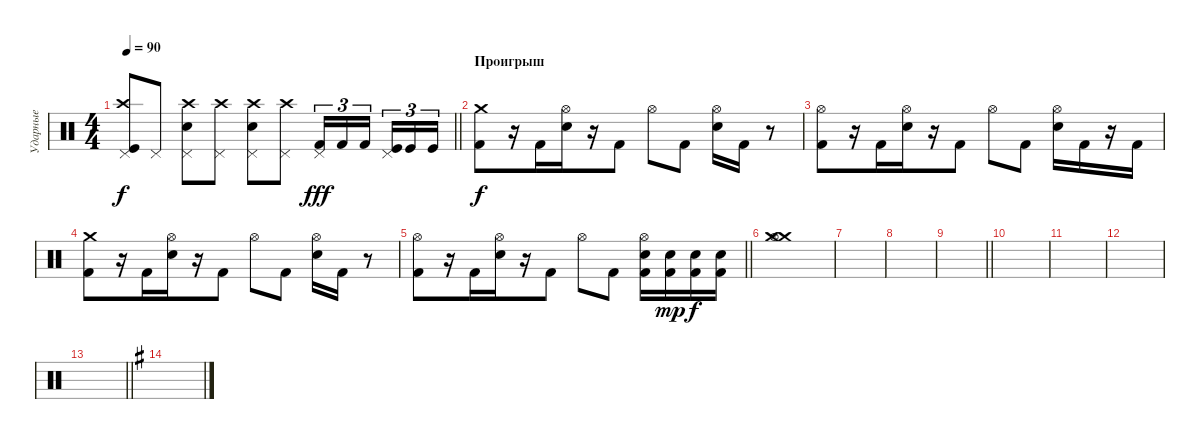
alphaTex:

\track ("Ударные" "Ударные") {instrument percussion}
\staff {score}
\articulation defaults
\ts (4 4)
\tempo 90
\clef neutral
\barLineRight lightlight
\ks c
("Kick (hit)" "Crash high (hit)" "Pedal Hi-Hat (hit)").8{dy f} "Pedal Hi-Hat (hit)".8 ("Snare (hit) 2" "Crash high (hit)" "Pedal Hi-Hat (hit)").8 ("Crash high (hit)" "Pedal Hi-Hat (hit)").8 ("Snare (hit) 2" "Crash high (hit)" "Pedal Hi-Hat (hit)").8 ("Crash high (hit)" "Pedal Hi-Hat (hit)").8 ("Kick (hit) 2" "Pedal Hi-Hat (hit)").16{tu (3 2) dy fff} "Kick (hit) 2".16{tu (3 2)} "Kick (hit) 2".16{tu (3 2) beam splitsecondary} ("Kick (hit)" "Pedal Hi-Hat (hit)").16{tu (3 2)} "Kick (hit)".16{tu (3 2)} "Kick (hit)".16{tu (3 2)} |
\section ("" "Проигрыш")
("Crash medium (hit)" "Kick (hit) 2").8{dy f} r.16 "Kick (hit) 2".16{beam merge} ("Hi-Hat (open)" "Electric Snare (hit)").16 r.16 "Kick (hit) 2".8 "Hi-Hat (open)".8 "Kick (hit) 2".8 ("Hi-Hat (open)" "Electric Snare (hit)").16 "Kick (hit) 2".16 r.8 |
("Hi-Hat (open)" "Kick (hit) 2").8 r.16 "Kick (hit) 2".16{beam merge} ("Hi-Hat (open)" "Electric Snare (hit)").16 r.16 "Kick (hit) 2".8 "Hi-Hat (open)".8 "Kick (hit) 2".8 ("Hi-Hat (open)" "Electric Snare (hit)").16 "Kick (hit) 2".16 r.16 "Kick (hit) 2".16 |
("Crash medium (hit)" "Kick (hit) 2").8 r.16 "Kick (hit) 2".16{beam merge} ("Hi-Hat (open)" "Electric Snare (hit)").16 r.16 "Kick (hit) 2".8 "Hi-Hat (open)".8 "Kick (hit) 2".8 ("Hi-Hat (open)" "Electric Snare (hit)").16 "Kick (hit) 2".16 r.8 |
\barLineRight lightlight
("Hi-Hat (open)" "Kick (hit) 2").8 r.16 "Kick (hit) 2".16{beam merge} ("Hi-Hat (open)" "Electric Snare (hit)").16 r.16 "Kick (hit) 2".8 "Hi-Hat (open)".8 "Kick (hit) 2".8 ("Hi-Hat (open)" "Snare (hit) 2" "Kick (hit) 2").16 ("Snare (hit) 2" "Kick (hit) 2").16{dy mp} ("Snare (hit) 2" "Kick (hit) 2").16{dy f} ("Snare (hit) 2" "Kick (hit) 2").16 |
("Crash medium (hit)" "Crash medium (hit)" "Hi-Hat (open)").1 |
|
|
\barLineRight lightlight
|
|
|
|
\barLineRight lightlight
|
\ks eminor
